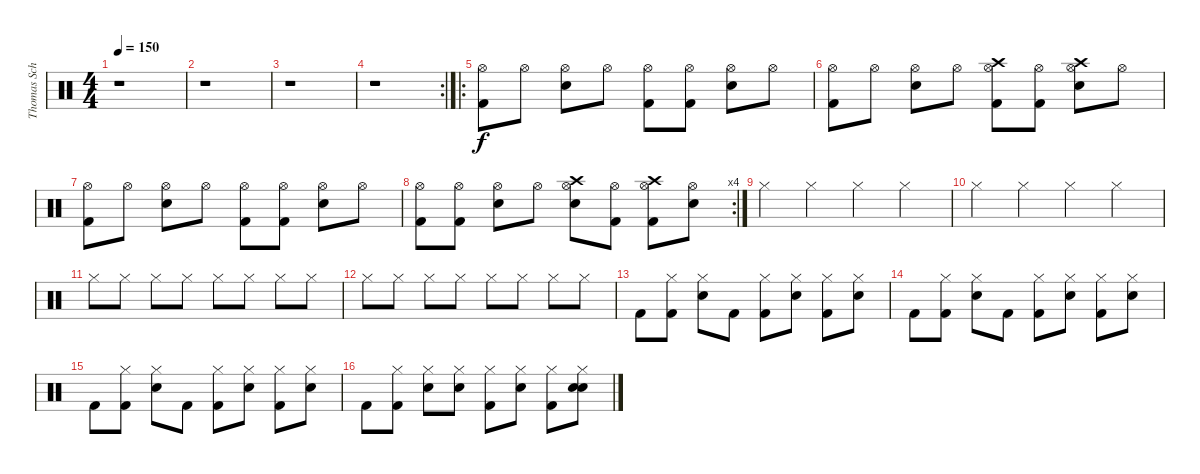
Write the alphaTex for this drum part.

\track ("Thomas Schnitzler" "Thomas Sch") {instrument percussion}
\staff {score}
\articulation defaults
\ts (4 4)
\tempo 150
\clef neutral
\ks c
r.1{dy f} |
r.1 |
r.1 |
\rc 2
r.1 |
\ro
("Hi-Hat (open)" "Kick (hit) 2").8 "Hi-Hat (open)".8 ("Hi-Hat (open)" "Snare (hit) 2").8 "Hi-Hat (open)".8 ("Hi-Hat (open)" "Kick (hit) 2").8 ("Hi-Hat (open)" "Kick (hit) 2").8 ("Hi-Hat (open)" "Snare (hit) 2").8 "Hi-Hat (open)".8 |
("Hi-Hat (open)" "Kick (hit) 2").8 "Hi-Hat (open)".8 ("Hi-Hat (open)" "Snare (hit) 2").8 "Hi-Hat (open)".8 ("Hi-Hat (open)" "Crash high (hit)" "Kick (hit) 2").8 ("Hi-Hat (open)" "Kick (hit) 2").8 ("Hi-Hat (open)" "Crash high (hit)" "Snare (hit) 2").8 "Hi-Hat (open)".8 |
("Hi-Hat (open)" "Kick (hit) 2").8 "Hi-Hat (open)".8 ("Hi-Hat (open)" "Snare (hit) 2").8 "Hi-Hat (open)".8 ("Hi-Hat (open)" "Kick (hit) 2").8 ("Hi-Hat (open)" "Kick (hit) 2").8 ("Hi-Hat (open)" "Snare (hit) 2").8 "Hi-Hat (open)".8 |
\rc 4
("Hi-Hat (open)" "Kick (hit) 2").8 ("Hi-Hat (open)" "Kick (hit) 2").8 ("Hi-Hat (open)" "Snare (hit) 2").8 "Hi-Hat (open)".8 ("Hi-Hat (open)" "Crash high (hit)" "Snare (hit) 2").8 ("Hi-Hat (open)" "Kick (hit) 2").8 ("Hi-Hat (open)" "Crash high (hit)" "Kick (hit) 2").8 ("Hi-Hat (open)" "Snare (hit) 2").8 |
"Hi-Hat (closed)".4 "Hi-Hat (closed)".4 "Hi-Hat (closed)".4 "Hi-Hat (closed)".4 |
"Hi-Hat (closed)".4 "Hi-Hat (closed)".4 "Hi-Hat (closed)".4 "Hi-Hat (closed)".4 |
"Hi-Hat (closed)".8 "Hi-Hat (closed)".8 "Hi-Hat (closed)".8 "Hi-Hat (closed)".8 "Hi-Hat (closed)".8 "Hi-Hat (closed)".8 "Hi-Hat (closed)".8 "Hi-Hat (closed)".8 |
"Hi-Hat (closed)".8 "Hi-Hat (closed)".8 "Hi-Hat (closed)".8 "Hi-Hat (closed)".8 "Hi-Hat (closed)".8 "Hi-Hat (closed)".8 "Hi-Hat (closed)".8 "Hi-Hat (closed)".8 |
"Kick (hit) 2".8 ("Hi-Hat (closed)" "Kick (hit) 2").8 ("Hi-Hat (closed)" "Snare (hit) 2").8 "Kick (hit) 2".8 ("Hi-Hat (closed)" "Kick (hit) 2").8 ("Hi-Hat (closed)" "Snare (hit) 2").8 ("Hi-Hat (closed)" "Kick (hit) 2").8 ("Hi-Hat (closed)" "Snare (hit) 2").8 |
"Kick (hit) 2".8 ("Hi-Hat (closed)" "Kick (hit) 2").8 ("Hi-Hat (closed)" "Snare (hit) 2").8 "Kick (hit) 2".8 ("Hi-Hat (closed)" "Kick (hit) 2").8 ("Hi-Hat (closed)" "Snare (hit) 2").8 ("Hi-Hat (closed)" "Kick (hit) 2").8 ("Hi-Hat (closed)" "Snare (hit) 2").8 |
"Kick (hit) 2".8 ("Hi-Hat (closed)" "Kick (hit) 2").8 ("Hi-Hat (closed)" "Snare (hit) 2").8 "Kick (hit) 2".8 ("Hi-Hat (closed)" "Kick (hit) 2").8 ("Hi-Hat (closed)" "Snare (hit) 2").8 ("Hi-Hat (closed)" "Kick (hit) 2").8 ("Hi-Hat (closed)" "Snare (hit) 2").8 |
"Kick (hit) 2".8 ("Hi-Hat (closed)" "Kick (hit) 2").8 ("Hi-Hat (closed)" "Snare (hit) 2").8 ("Hi-Hat (closed)" "Snare (hit) 2").8 ("Hi-Hat (closed)" "Kick (hit) 2").8 ("Hi-Hat (closed)" "Snare (hit) 2").8 ("Hi-Hat (closed)" "Kick (hit) 2").8 ("Hi-Hat (closed)" "Snare (hit) 2" "Snare (hit) 2").8
